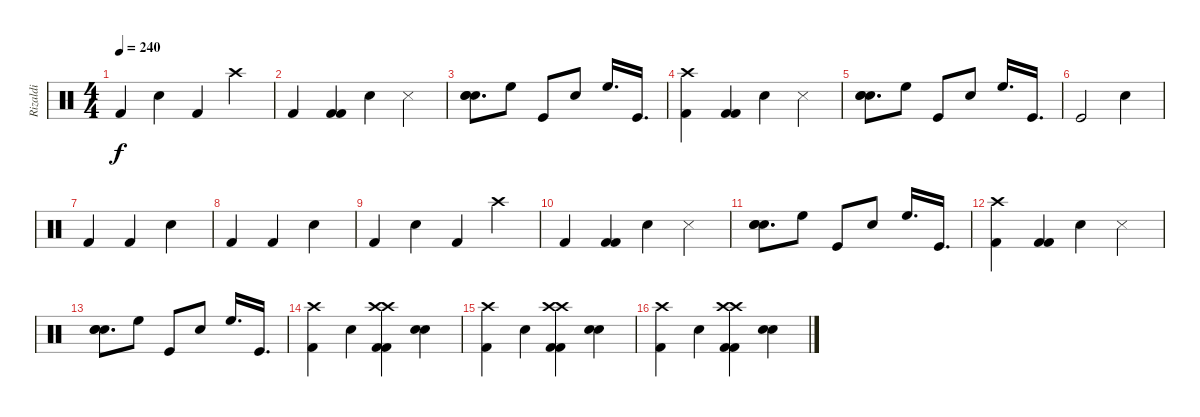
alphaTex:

\track ("Rizaldi" "Rizaldi") {instrument percussion}
\staff {score}
\articulation defaults
\ts (4 4)
\tempo 240
\clef neutral
\ks c "Kick (hit) 2".4{dy f} "Snare (hit) 2".4 "Kick (hit) 2".4 "Crash high (hit)".4
|
"Kick (hit) 2".4 ("Kick (hit) 2" "Kick (hit) 2").4 "Snare (hit) 2".4 "Snare (side stick) 3".4 |
("Electric Snare (hit)" "Snare (hit) 2" "Snare (hit) 2").8{d} "High Floor Tom (hit)".8 "Kick (hit)".8 "Snare (hit) 2".8 "High Floor Tom (hit)".16{d} "Kick (hit)".16{d} |
("Kick (hit) 2" "Crash high (hit)").4 ("Kick (hit) 2" "Kick (hit) 2").4 "Snare (hit) 2".4 "Snare (side stick) 3".4 |
("Electric Snare (hit)" "Snare (hit) 2" "Snare (hit) 2").8{d} "High Floor Tom (hit)".8 "Kick (hit)".8 "Snare (hit) 2".8 "High Floor Tom (hit)".16{d} "Kick (hit)".16{d} |
"Kick (hit)".2 "Snare (hit) 2".4 |
"Kick (hit) 2".4 "Kick (hit) 2".4 "Snare (hit) 2".4 |
"Kick (hit) 2".4 "Kick (hit) 2".4 "Snare (hit) 2".4 |
"Kick (hit) 2".4 "Snare (hit) 2".4 "Kick (hit) 2".4 "Crash high (hit)".4 |
"Kick (hit) 2".4 ("Kick (hit) 2" "Kick (hit) 2").4 "Snare (hit) 2".4 "Snare (side stick) 3".4 |
("Electric Snare (hit)" "Snare (hit) 2" "Snare (hit) 2").8{d} "High Floor Tom (hit)".8 "Kick (hit)".8 "Snare (hit) 2".8 "High Floor Tom (hit)".16{d} "Kick (hit)".16{d} |
("Kick (hit) 2" "Crash high (hit)").4 ("Kick (hit) 2" "Kick (hit) 2").4 "Snare (hit) 2".4 "Snare (side stick) 3".4 |
("Electric Snare (hit)" "Snare (hit) 2" "Snare (hit) 2").8{d} "High Floor Tom (hit)".8 "Kick (hit)".8 "Snare (hit) 2".8 "High Floor Tom (hit)".16{d} "Kick (hit)".16{d} |
("Kick (hit) 2" "Crash high (hit)").4 "Snare (hit) 2".4 ("Kick (hit) 2" "Kick (hit) 2" "Crash high (hit)" "Crash high (hit)").4 ("Snare (hit) 2" "Snare (hit) 2").4 |
("Kick (hit) 2" "Crash high (hit)").4 "Snare (hit) 2".4 ("Kick (hit) 2" "Kick (hit) 2" "Crash high (hit)" "Crash high (hit)").4 ("Snare (hit) 2" "Snare (hit) 2").4 |
("Kick (hit) 2" "Crash high (hit)").4 "Snare (hit) 2".4 ("Kick (hit) 2" "Kick (hit) 2" "Crash high (hit)" "Crash high (hit)").4 ("Snare (hit) 2" "Snare (hit) 2").4
